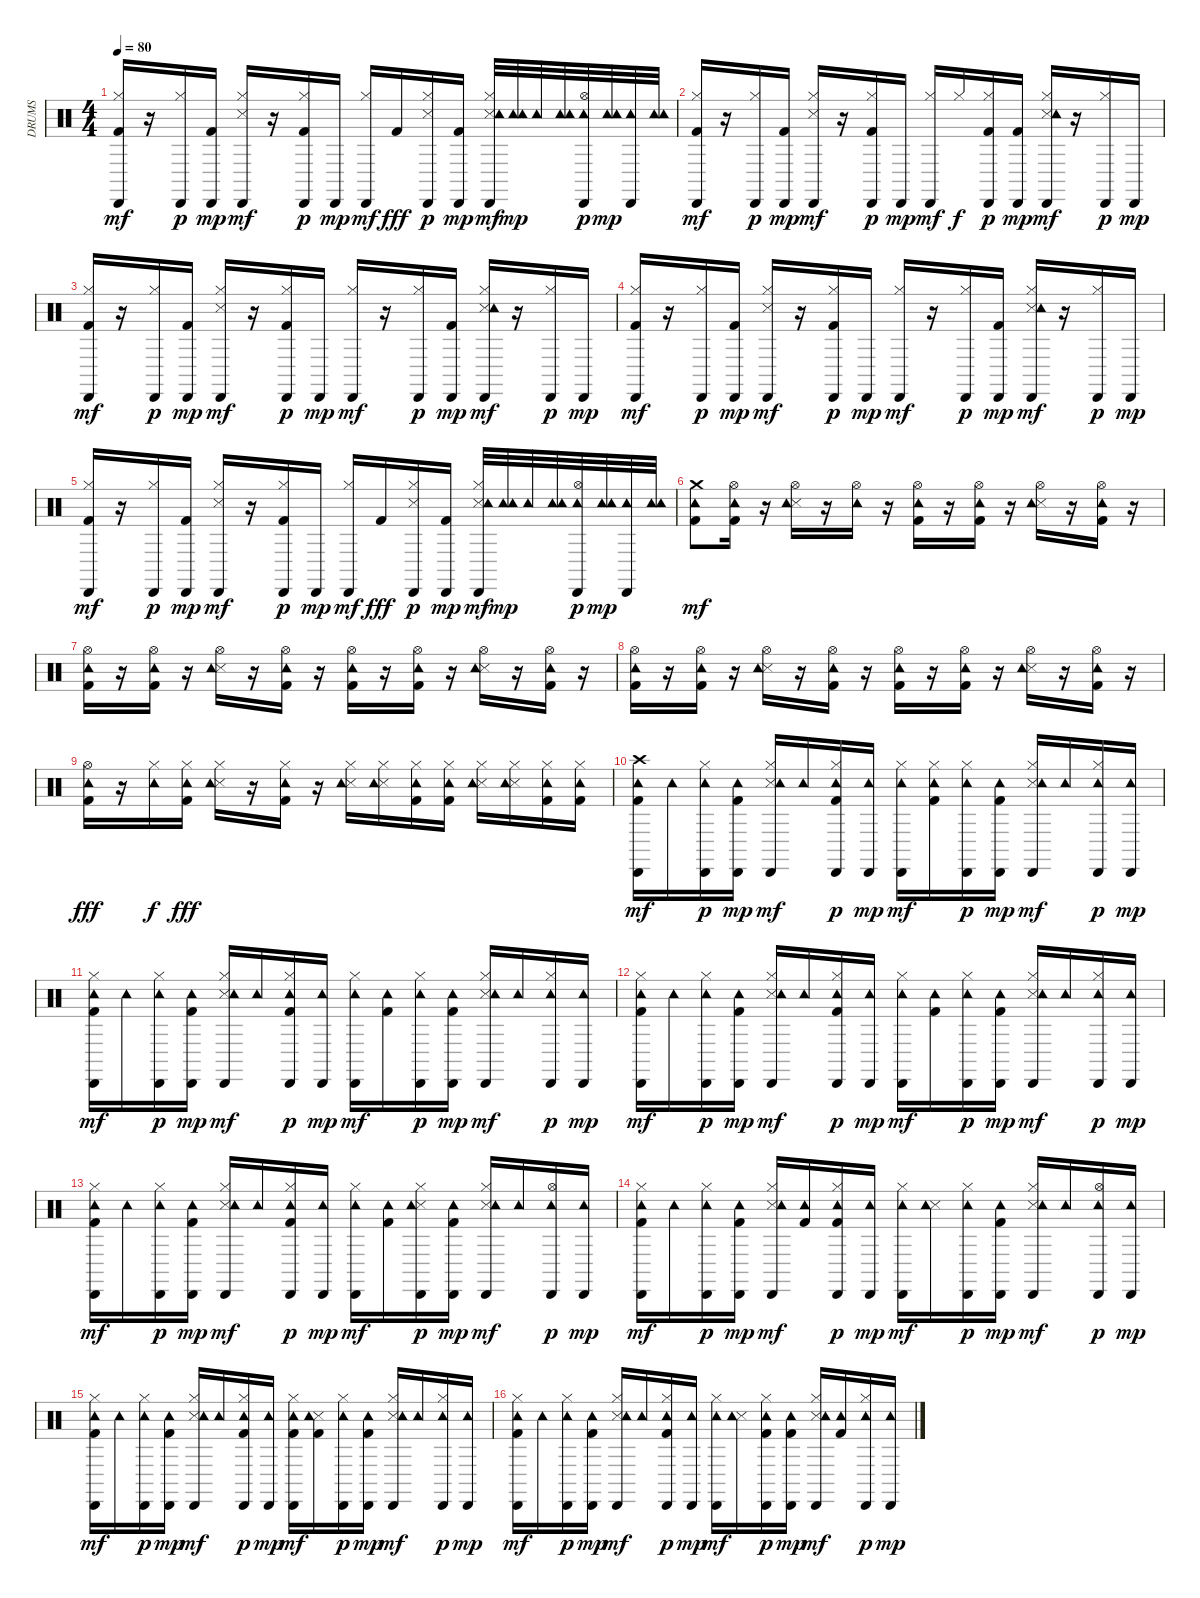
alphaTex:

\track ("DRUMS" "DRUMS") {instrument percussion}
\staff {score}
\articulation defaults
\ts (4 4)
\tempo 80
\clef neutral
\ks c
("Kick (hit) 2" "Hi-Hat (closed)" "Cabasa (hit)").16{dy mf} r.16 ("Hi-Hat (closed)" "Cabasa (hit)").16{dy p} ("Kick (hit) 2" "Cabasa (hit)").16{dy mp} ("Hi-Hat (closed)" "Metronome (hit)" "Cabasa (hit)").16{dy mf} r.16 ("Kick (hit) 2" "Hi-Hat (closed)" "Cabasa (hit)").16{dy p} "Cabasa (hit)".16{dy mp} ("Hi-Hat (closed)" "Cabasa (hit)").16{dy mf} "Kick (hit) 2".16{dy fff} ("Hi-Hat (closed)" "Metronome (hit)" "Cabasa (hit)").16{dy p} ("Kick (hit) 2" "Cabasa (hit)").16{dy mp} ("Hi-Hat (closed)" "Metronome (hit)" "Tambourine (hit)" "Cabasa (hit)").32{dy mf} ("Tambourine (hit)" "Tambourine (hit)").32{dy mp} "Tambourine (hit)".32 ("Tambourine (hit)" "Tambourine (hit)").32 ("Hi-Hat (open)" "Tambourine (hit)" "Cabasa (hit)").32{dy p} ("Tambourine (hit)" "Tambourine (hit)").32{dy mp} ("Tambourine (hit)" "Cabasa (hit)").32 ("Tambourine (hit)" "Tambourine (hit)").32 |
("Kick (hit) 2" "Hi-Hat (closed)" "Cabasa (hit)").16{dy mf} r.16 ("Hi-Hat (closed)" "Cabasa (hit)").16{dy p} ("Kick (hit) 2" "Cabasa (hit)").16{dy mp} ("Hi-Hat (closed)" "Metronome (hit)" "Cabasa (hit)").16{dy mf} r.16 ("Kick (hit) 2" "Hi-Hat (closed)" "Cabasa (hit)").16{dy p} "Cabasa (hit)".16{dy mp} ("Hi-Hat (closed)" "Cabasa (hit)").16{dy mf} "Hi-Hat (closed)".16{dy f} ("Kick (hit) 2" "Hi-Hat (closed)" "Cabasa (hit)").16{dy p} ("Kick (hit) 2" "Cabasa (hit)").16{dy mp} ("Hi-Hat (closed)" "Metronome (hit)" "Tambourine (hit)" "Cabasa (hit)").16{dy mf} r.16 ("Hi-Hat (closed)" "Cabasa (hit)").16{dy p} "Cabasa (hit)".16{dy mp} |
("Kick (hit) 2" "Hi-Hat (closed)" "Cabasa (hit)").16{dy mf} r.16 ("Hi-Hat (closed)" "Cabasa (hit)").16{dy p} ("Kick (hit) 2" "Cabasa (hit)").16{dy mp} ("Hi-Hat (closed)" "Metronome (hit)" "Cabasa (hit)").16{dy mf} r.16 ("Kick (hit) 2" "Hi-Hat (closed)" "Cabasa (hit)").16{dy p} "Cabasa (hit)".16{dy mp} ("Hi-Hat (closed)" "Cabasa (hit)").16{dy mf} r.16 ("Hi-Hat (closed)" "Cabasa (hit)").16{dy p} ("Kick (hit) 2" "Cabasa (hit)").16{dy mp} ("Hi-Hat (closed)" "Metronome (hit)" "Tambourine (hit)" "Cabasa (hit)").16{dy mf} r.16 ("Hi-Hat (closed)" "Cabasa (hit)").16{dy p} "Cabasa (hit)".16{dy mp} |
("Kick (hit) 2" "Hi-Hat (closed)" "Cabasa (hit)").16{dy mf} r.16 ("Hi-Hat (closed)" "Cabasa (hit)").16{dy p} ("Kick (hit) 2" "Cabasa (hit)").16{dy mp} ("Hi-Hat (closed)" "Metronome (hit)" "Cabasa (hit)").16{dy mf} r.16 ("Kick (hit) 2" "Hi-Hat (closed)" "Cabasa (hit)").16{dy p} "Cabasa (hit)".16{dy mp} ("Hi-Hat (closed)" "Cabasa (hit)").16{dy mf} r.16 ("Hi-Hat (closed)" "Cabasa (hit)").16{dy p} ("Kick (hit) 2" "Cabasa (hit)").16{dy mp} ("Hi-Hat (closed)" "Metronome (hit)" "Tambourine (hit)" "Cabasa (hit)").16{dy mf} r.16 ("Hi-Hat (closed)" "Cabasa (hit)").16{dy p} "Cabasa (hit)".16{dy mp} |
("Kick (hit) 2" "Hi-Hat (closed)" "Cabasa (hit)").16{dy mf} r.16 ("Hi-Hat (closed)" "Cabasa (hit)").16{dy p} ("Kick (hit) 2" "Cabasa (hit)").16{dy mp} ("Hi-Hat (closed)" "Metronome (hit)" "Cabasa (hit)").16{dy mf} r.16 ("Kick (hit) 2" "Hi-Hat (closed)" "Cabasa (hit)").16{dy p} "Cabasa (hit)".16{dy mp} ("Hi-Hat (closed)" "Cabasa (hit)").16{dy mf} "Kick (hit) 2".16{dy fff} ("Hi-Hat (closed)" "Metronome (hit)" "Cabasa (hit)").16{dy p} ("Kick (hit) 2" "Cabasa (hit)").16{dy mp} ("Hi-Hat (closed)" "Metronome (hit)" "Tambourine (hit)" "Cabasa (hit)").32{dy mf} ("Tambourine (hit)" "Tambourine (hit)").32{dy mp} "Tambourine (hit)".32 ("Tambourine (hit)" "Tambourine (hit)").32 ("Hi-Hat (open)" "Tambourine (hit)" "Cabasa (hit)").32{dy p} ("Tambourine (hit)" "Tambourine (hit)").32{dy mp} ("Tambourine (hit)" "Cabasa (hit)").32 ("Tambourine (hit)" "Tambourine (hit)").32 |
("Kick (hit) 2" "Crash medium (hit)" "Tambourine (hit)").8{dy mf} ("Kick (hit) 2" "Hi-Hat (open)" "Tambourine (hit)").16 r.16 ("Metronome (hit)" "Hi-Hat (open)" "Tambourine (hit)").16 r.16 ("Hi-Hat (open)" "Tambourine (hit)").16 r.16 ("Kick (hit) 2" "Hi-Hat (open)" "Tambourine (hit)").16 r.16 ("Kick (hit) 2" "Hi-Hat (open)" "Tambourine (hit)").16 r.16 ("Metronome (hit)" "Hi-Hat (open)" "Tambourine (hit)").16 r.16 ("Kick (hit) 2" "Hi-Hat (open)" "Tambourine (hit)").16 r.16 |
("Kick (hit) 2" "Hi-Hat (open)" "Tambourine (hit)").16 r.16 ("Kick (hit) 2" "Hi-Hat (open)" "Tambourine (hit)").16 r.16 ("Metronome (hit)" "Hi-Hat (open)" "Tambourine (hit)").16 r.16 ("Kick (hit) 2" "Hi-Hat (open)" "Tambourine (hit)").16 r.16 ("Kick (hit) 2" "Hi-Hat (open)" "Tambourine (hit)").16 r.16 ("Kick (hit) 2" "Hi-Hat (open)" "Tambourine (hit)").16 r.16 ("Metronome (hit)" "Hi-Hat (open)" "Tambourine (hit)").16 r.16 ("Kick (hit) 2" "Hi-Hat (open)" "Tambourine (hit)").16 r.16 |
("Kick (hit) 2" "Hi-Hat (open)" "Tambourine (hit)").16 r.16 ("Kick (hit) 2" "Hi-Hat (open)" "Tambourine (hit)").16 r.16 ("Metronome (hit)" "Hi-Hat (open)" "Tambourine (hit)").16 r.16 ("Kick (hit) 2" "Hi-Hat (open)" "Tambourine (hit)").16 r.16 ("Kick (hit) 2" "Hi-Hat (open)" "Tambourine (hit)").16 r.16 ("Kick (hit) 2" "Hi-Hat (open)" "Tambourine (hit)").16 r.16 ("Metronome (hit)" "Hi-Hat (open)" "Tambourine (hit)").16 r.16 ("Kick (hit) 2" "Hi-Hat (open)" "Tambourine (hit)").16 r.16 |
("Kick (hit) 2" "Hi-Hat (open)" "Tambourine (hit)").16{dy fff} r.16 ("Hi-Hat (closed)" "Tambourine (hit)").16{dy f} ("Kick (hit) 2" "Hi-Hat (closed)" "Tambourine (hit)").16{dy fff} ("Metronome (hit)" "Hi-Hat (closed)" "Tambourine (hit)").16 r.16 ("Hi-Hat (closed)" "Kick (hit) 2" "Tambourine (hit)").16 r.16 ("Hi-Hat (closed)" "Metronome (hit)" "Tambourine (hit)").16 ("Hi-Hat (closed)" "Metronome (hit)" "Tambourine (hit)").16 ("Hi-Hat (closed)" "Kick (hit) 2" "Tambourine (hit)").16 ("Hi-Hat (closed)" "Kick (hit) 2" "Tambourine (hit)").16 ("Metronome (hit)" "Hi-Hat (closed)" "Tambourine (hit)").16 ("Hi-Hat (closed)" "Metronome (hit)" "Tambourine (hit)").16 ("Hi-Hat (closed)" "Kick (hit) 2" "Tambourine (hit)").16 ("Kick (hit) 2" "Hi-Hat (closed)" "Tambourine (hit)").16 |
("Kick (hit) 2" "Crash high (hit)" "Tambourine (hit)" "Cabasa (hit)").16{dy mf} "Tambourine (hit)".16 ("Hi-Hat (closed)" "Tambourine (hit)" "Cabasa (hit)").16{dy p} ("Kick (hit) 2" "Tambourine (hit)" "Cabasa (hit)").16{dy mp} ("Hi-Hat (closed)" "Metronome (hit)" "Tambourine (hit)" "Cabasa (hit)").16{dy mf} "Tambourine (hit)".16 ("Kick (hit) 2" "Hi-Hat (closed)" "Tambourine (hit)" "Cabasa (hit)").16{dy p} ("Tambourine (hit)" "Cabasa (hit)").16{dy mp} ("Hi-Hat (closed)" "Tambourine (hit)" "Cabasa (hit)").16{dy mf} ("Kick (hit) 2" "Hi-Hat (closed)" "Tambourine (hit)").16 ("Hi-Hat (closed)" "Tambourine (hit)" "Cabasa (hit)").16{dy p} ("Kick (hit) 2" "Tambourine (hit)" "Cabasa (hit)").16{dy mp} ("Hi-Hat (closed)" "Metronome (hit)" "Tambourine (hit)" "Cabasa (hit)").16{dy mf} "Tambourine (hit)".16 ("Hi-Hat (closed)" "Tambourine (hit)" "Cabasa (hit)").16{dy p} ("Tambourine (hit)" "Cabasa (hit)").16{dy mp} |
("Kick (hit) 2" "Hi-Hat (closed)" "Tambourine (hit)" "Cabasa (hit)").16{dy mf} "Tambourine (hit)".16 ("Hi-Hat (closed)" "Tambourine (hit)" "Cabasa (hit)").16{dy p} ("Kick (hit) 2" "Tambourine (hit)" "Cabasa (hit)").16{dy mp} ("Hi-Hat (closed)" "Metronome (hit)" "Tambourine (hit)" "Cabasa (hit)").16{dy mf} "Tambourine (hit)".16 ("Kick (hit) 2" "Hi-Hat (closed)" "Tambourine (hit)" "Cabasa (hit)").16{dy p} ("Tambourine (hit)" "Cabasa (hit)").16{dy mp} ("Hi-Hat (closed)" "Tambourine (hit)" "Cabasa (hit)").16{dy mf} ("Kick (hit) 2" "Tambourine (hit)").16 ("Hi-Hat (closed)" "Tambourine (hit)" "Cabasa (hit)").16{dy p} ("Kick (hit) 2" "Tambourine (hit)" "Cabasa (hit)").16{dy mp} ("Hi-Hat (closed)" "Metronome (hit)" "Tambourine (hit)" "Cabasa (hit)").16{dy mf} "Tambourine (hit)".16 ("Hi-Hat (closed)" "Tambourine (hit)" "Cabasa (hit)").16{dy p} ("Tambourine (hit)" "Cabasa (hit)").16{dy mp} |
("Kick (hit) 2" "Hi-Hat (closed)" "Tambourine (hit)" "Cabasa (hit)").16{dy mf} "Tambourine (hit)".16 ("Hi-Hat (closed)" "Tambourine (hit)" "Cabasa (hit)").16{dy p} ("Kick (hit) 2" "Tambourine (hit)" "Cabasa (hit)").16{dy mp} ("Hi-Hat (closed)" "Metronome (hit)" "Tambourine (hit)" "Cabasa (hit)").16{dy mf} "Tambourine (hit)".16 ("Kick (hit) 2" "Hi-Hat (closed)" "Tambourine (hit)" "Cabasa (hit)").16{dy p} ("Tambourine (hit)" "Cabasa (hit)").16{dy mp} ("Hi-Hat (closed)" "Tambourine (hit)" "Cabasa (hit)").16{dy mf} ("Kick (hit) 2" "Tambourine (hit)").16 ("Hi-Hat (closed)" "Tambourine (hit)" "Cabasa (hit)").16{dy p} ("Kick (hit) 2" "Tambourine (hit)" "Cabasa (hit)").16{dy mp} ("Hi-Hat (closed)" "Metronome (hit)" "Tambourine (hit)" "Cabasa (hit)").16{dy mf} "Tambourine (hit)".16 ("Hi-Hat (closed)" "Tambourine (hit)" "Cabasa (hit)").16{dy p} ("Tambourine (hit)" "Cabasa (hit)").16{dy mp} |
("Kick (hit) 2" "Hi-Hat (closed)" "Tambourine (hit)" "Cabasa (hit)").16{dy mf} "Tambourine (hit)".16 ("Hi-Hat (closed)" "Tambourine (hit)" "Cabasa (hit)").16{dy p} ("Kick (hit) 2" "Tambourine (hit)" "Cabasa (hit)").16{dy mp} ("Hi-Hat (closed)" "Metronome (hit)" "Tambourine (hit)" "Cabasa (hit)").16{dy mf} "Tambourine (hit)".16 ("Kick (hit) 2" "Hi-Hat (closed)" "Tambourine (hit)" "Cabasa (hit)").16{dy p} ("Tambourine (hit)" "Cabasa (hit)").16{dy mp} ("Hi-Hat (closed)" "Tambourine (hit)" "Cabasa (hit)").16{dy mf} ("Kick (hit) 2" "Tambourine (hit)").16 ("Hi-Hat (closed)" "Metronome (hit)" "Tambourine (hit)" "Cabasa (hit)").16{dy p} ("Kick (hit) 2" "Tambourine (hit)" "Cabasa (hit)").16{dy mp} ("Hi-Hat (closed)" "Metronome (hit)" "Tambourine (hit)" "Cabasa (hit)").16{dy mf} "Tambourine (hit)".16 ("Hi-Hat (open)" "Tambourine (hit)" "Cabasa (hit)").16{dy p} ("Tambourine (hit)" "Cabasa (hit)").16{dy mp} |
("Kick (hit) 2" "Hi-Hat (closed)" "Tambourine (hit)" "Cabasa (hit)").16{dy mf} "Tambourine (hit)".16 ("Hi-Hat (closed)" "Tambourine (hit)" "Cabasa (hit)").16{dy p} ("Kick (hit) 2" "Tambourine (hit)" "Cabasa (hit)").16{dy mp} ("Hi-Hat (closed)" "Metronome (hit)" "Tambourine (hit)" "Cabasa (hit)").16{dy mf} ("Kick (hit) 2" "Tambourine (hit)").16 ("Kick (hit) 2" "Hi-Hat (closed)" "Tambourine (hit)" "Cabasa (hit)").16{dy p} ("Tambourine (hit)" "Cabasa (hit)").16{dy mp} ("Hi-Hat (closed)" "Tambourine (hit)" "Cabasa (hit)").16{dy mf} ("Metronome (hit)" "Tambourine (hit)").16 ("Hi-Hat (closed)" "Tambourine (hit)" "Cabasa (hit)").16{dy p} ("Kick (hit) 2" "Tambourine (hit)" "Cabasa (hit)").16{dy mp} ("Hi-Hat (closed)" "Metronome (hit)" "Tambourine (hit)" "Cabasa (hit)").16{dy mf} "Tambourine (hit)".16 ("Hi-Hat (open)" "Tambourine (hit)" "Cabasa (hit)").16{dy p} ("Tambourine (hit)" "Cabasa (hit)").16{dy mp} |
("Kick (hit) 2" "Hi-Hat (closed)" "Tambourine (hit)" "Cabasa (hit)").16{dy mf} "Tambourine (hit)".16 ("Hi-Hat (closed)" "Tambourine (hit)" "Cabasa (hit)").16{dy p} ("Kick (hit) 2" "Tambourine (hit)" "Cabasa (hit)").16{dy mp} ("Hi-Hat (closed)" "Metronome (hit)" "Tambourine (hit)" "Cabasa (hit)").16{dy mf} "Tambourine (hit)".16 ("Kick (hit) 2" "Hi-Hat (closed)" "Tambourine (hit)" "Cabasa (hit)").16{dy p} ("Tambourine (hit)" "Cabasa (hit)").16{dy mp} ("Kick (hit) 2" "Hi-Hat (closed)" "Tambourine (hit)" "Cabasa (hit)").16{dy mf} ("Kick (hit) 2" "Metronome (hit)" "Tambourine (hit)").16 ("Hi-Hat (closed)" "Tambourine (hit)" "Cabasa (hit)").16{dy p} ("Kick (hit) 2" "Tambourine (hit)" "Cabasa (hit)").16{dy mp} ("Hi-Hat (closed)" "Metronome (hit)" "Tambourine (hit)" "Cabasa (hit)").16{dy mf} "Tambourine (hit)".16 ("Hi-Hat (closed)" "Tambourine (hit)" "Cabasa (hit)").16{dy p} ("Tambourine (hit)" "Cabasa (hit)").16{dy mp} |
("Kick (hit) 2" "Hi-Hat (closed)" "Tambourine (hit)" "Cabasa (hit)").16{dy mf} "Tambourine (hit)".16 ("Hi-Hat (closed)" "Tambourine (hit)" "Cabasa (hit)").16{dy p} ("Kick (hit) 2" "Tambourine (hit)" "Cabasa (hit)").16{dy mp} ("Hi-Hat (closed)" "Metronome (hit)" "Tambourine (hit)" "Cabasa (hit)").16{dy mf} "Tambourine (hit)".16 ("Kick (hit) 2" "Hi-Hat (closed)" "Tambourine (hit)" "Cabasa (hit)").16{dy p} ("Tambourine (hit)" "Cabasa (hit)").16{dy mp} ("Hi-Hat (closed)" "Tambourine (hit)" "Cabasa (hit)").16{dy mf} ("Metronome (hit)" "Tambourine (hit)").16 ("Kick (hit) 2" "Hi-Hat (closed)" "Tambourine (hit)" "Cabasa (hit)").16{dy p} ("Kick (hit) 2" "Tambourine (hit)" "Cabasa (hit)").16{dy mp} ("Hi-Hat (closed)" "Metronome (hit)" "Tambourine (hit)" "Cabasa (hit)").16{dy mf} ("Kick (hit) 2" "Tambourine (hit)").16 ("Hi-Hat (closed)" "Tambourine (hit)" "Cabasa (hit)").16{dy p} ("Tambourine (hit)" "Cabasa (hit)").16{dy mp}
